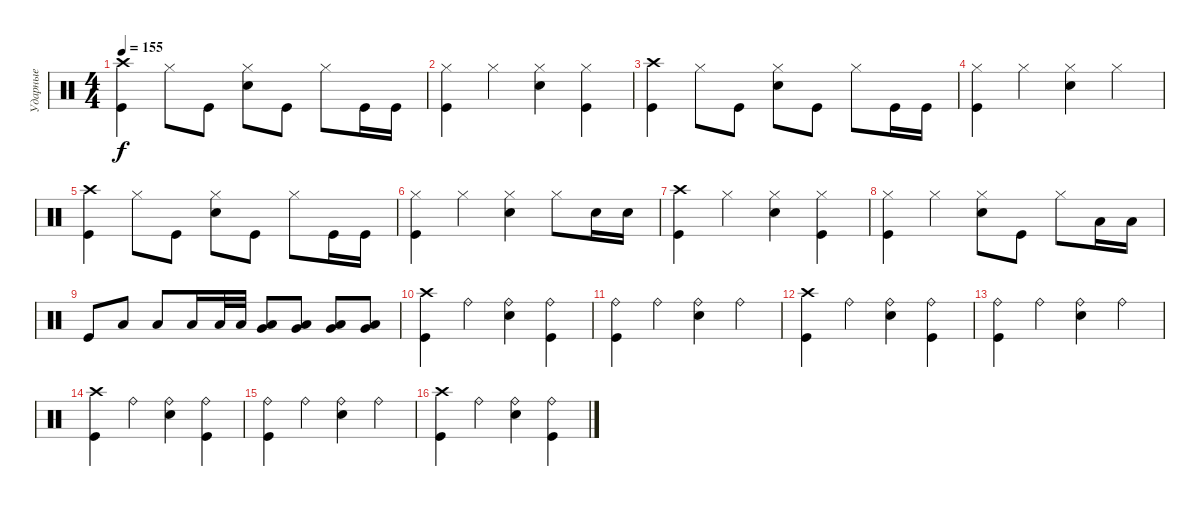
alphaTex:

\track ("Ударные" "Ударные") {instrument percussion}
\staff {score}
\articulation defaults
\ts (4 4)
\tempo 155
\clef neutral
\ks c
("Crash high (hit)" "Kick (hit)").4{dy f} "Hi-Hat (closed)".8 "Kick (hit)".8 ("Hi-Hat (closed)" "Electric Snare (hit)").8 "Kick (hit)".8 "Hi-Hat (closed)".8 "Kick (hit)".16 "Kick (hit)".16 |
("Hi-Hat (closed)" "Kick (hit)").4 "Hi-Hat (closed)".4 ("Hi-Hat (closed)" "Electric Snare (hit)").4 ("Hi-Hat (closed)" "Kick (hit)").4 |
("Crash high (hit)" "Kick (hit)").4 "Hi-Hat (closed)".8 "Kick (hit)".8 ("Hi-Hat (closed)" "Electric Snare (hit)").8 "Kick (hit)".8 "Hi-Hat (closed)".8 "Kick (hit)".16 "Kick (hit)".16 |
("Hi-Hat (closed)" "Kick (hit)").4 "Hi-Hat (closed)".4 ("Hi-Hat (closed)" "Electric Snare (hit)").4 "Hi-Hat (closed)".4 |
("Crash high (hit)" "Kick (hit)").4 "Hi-Hat (closed)".8 "Kick (hit)".8 ("Hi-Hat (closed)" "Electric Snare (hit)").8 "Kick (hit)".8 "Hi-Hat (closed)".8 "Kick (hit)".16 "Kick (hit)".16 |
("Hi-Hat (closed)" "Kick (hit)").4 "Hi-Hat (closed)".4 ("Hi-Hat (closed)" "Electric Snare (hit)").4 "Hi-Hat (closed)".8 "Electric Snare (hit)".16 "Electric Snare (hit)".16 |
("Crash high (hit)" "Kick (hit)").4 "Hi-Hat (closed)".4 ("Hi-Hat (closed)" "Electric Snare (hit)").4 ("Hi-Hat (closed)" "Kick (hit)").4 |
("Hi-Hat (closed)" "Kick (hit)").4 "Hi-Hat (closed)".4 ("Hi-Hat (closed)" "Electric Snare (hit)").8 "Kick (hit)".8 "Hi-Hat (closed)".8 "Low Tom (hit)".16 "Low Tom (hit)".16 |
"Kick (hit)".8 "Low Tom (hit)".8 "Low Tom (hit)".8 "Low Tom (hit)".16 "Low Tom (hit)".32 "Low Tom (hit)".32 ("Very Low Tom (hit)" "Low Tom (hit)").8 ("Very Low Tom (hit)" "Low Tom (hit)").8 ("Very Low Tom (hit)" "Low Tom (hit)").8 ("Very Low Tom (hit)" "Low Tom (hit)").8 |
("Crash high (hit)" "Kick (hit)").4 "Ride (bell)".4 ("Ride (bell)" "Electric Snare (hit)").4 ("Ride (bell)" "Kick (hit)").4 |
("Ride (bell)" "Kick (hit)").4 "Ride (bell)".4 ("Ride (bell)" "Electric Snare (hit)").4 "Ride (bell)".4 |
("Crash high (hit)" "Kick (hit)").4 "Ride (bell)".4 ("Ride (bell)" "Electric Snare (hit)").4 ("Ride (bell)" "Kick (hit)").4 |
("Ride (bell)" "Kick (hit)").4 "Ride (bell)".4 ("Ride (bell)" "Electric Snare (hit)").4 "Ride (bell)".4 |
("Crash high (hit)" "Kick (hit)").4 "Ride (bell)".4 ("Ride (bell)" "Electric Snare (hit)").4 ("Ride (bell)" "Kick (hit)").4 |
("Ride (bell)" "Kick (hit)").4 "Ride (bell)".4 ("Ride (bell)" "Electric Snare (hit)").4 "Ride (bell)".4 |
("Crash high (hit)" "Kick (hit)").4 "Ride (bell)".4 ("Ride (bell)" "Electric Snare (hit)").4 ("Ride (bell)" "Kick (hit)").4
